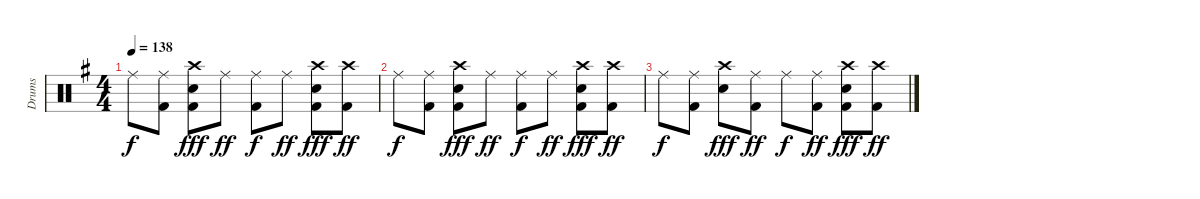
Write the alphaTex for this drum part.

\track ("Drums" "Drums") {instrument percussion}
\staff {score}
\articulation defaults
\ts (4 4)
\tempo 138
\clef neutral
\ks g "Ride (middle)".8{dy f}
("Ride (middle)" "Kick (hit) 2").8 ("Crash high (hit)" "Snare (hit) 2" "Kick (hit) 2").8{dy fff} "Ride (middle)".8{dy ff} ("Ride (middle)" "Kick (hit) 2").8{dy f} "Ride (middle)".8{dy ff} ("Crash high (hit)" "Snare (hit) 2" "Kick (hit) 2").8{dy fff} ("Crash high (hit)" "Kick (hit) 2").8{dy ff} |
"Ride (middle)".8{dy f} ("Ride (middle)" "Kick (hit) 2").8 ("Crash high (hit)" "Snare (hit) 2" "Kick (hit) 2").8{dy fff} "Ride (middle)".8{dy ff} ("Ride (middle)" "Kick (hit) 2").8{dy f} "Ride (middle)".8{dy ff} ("Crash high (hit)" "Snare (hit) 2" "Kick (hit) 2").8{dy fff} ("Crash high (hit)" "Kick (hit) 2").8{dy ff} |
"Ride (middle)".8{dy f} ("Ride (middle)" "Kick (hit) 2").8 ("Crash high (hit)" "Snare (hit) 2").8{dy fff} ("Ride (middle)" "Kick (hit) 2").8{dy ff} "Ride (middle)".8{dy f} ("Ride (middle)" "Kick (hit) 2").8{dy ff} ("Crash high (hit)" "Snare (hit) 2" "Kick (hit) 2").8{dy fff} ("Crash high (hit)" "Kick (hit) 2").8{dy ff}
